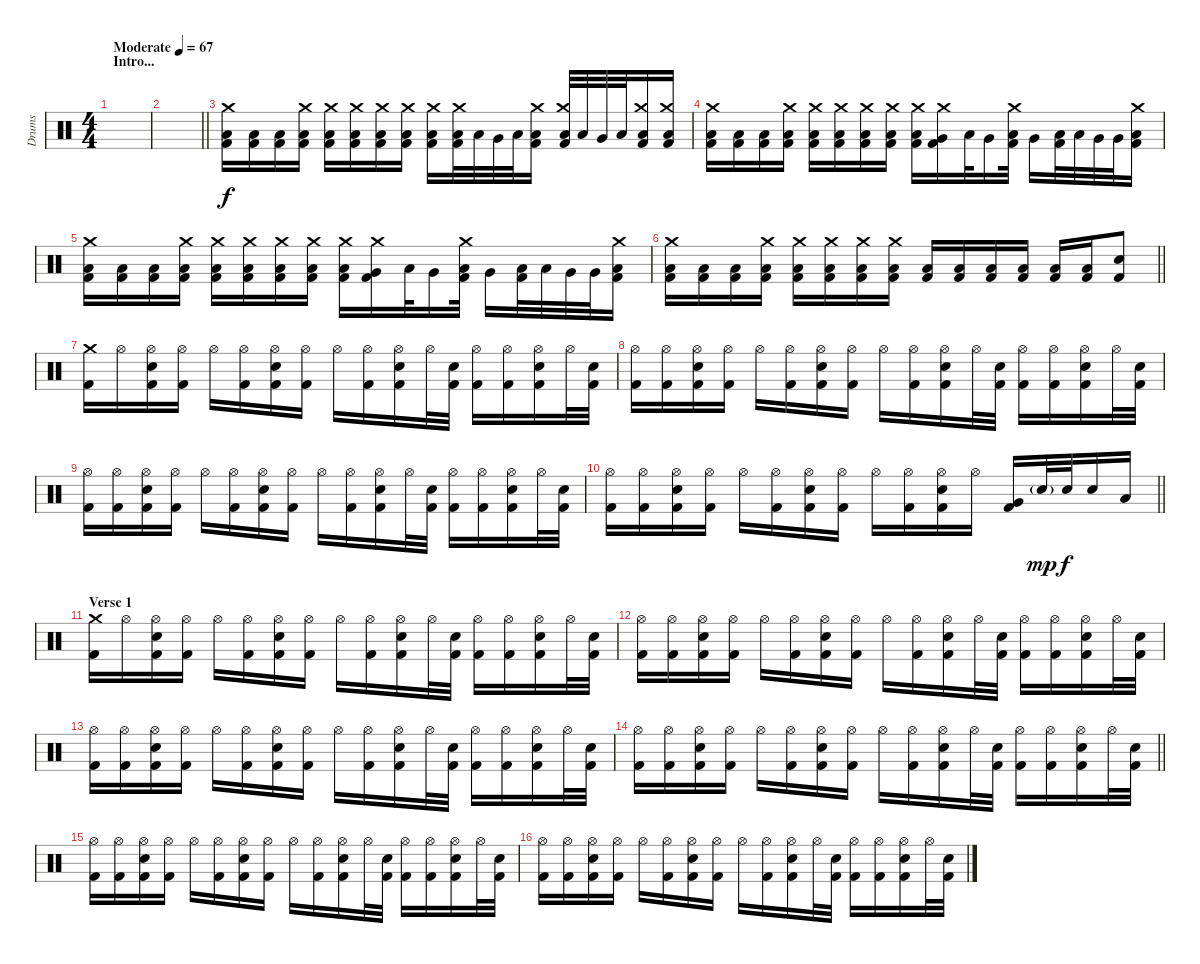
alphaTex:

\track ("Drums" "Drums") {instrument percussion}
\staff {score}
\articulation defaults
\ts (4 4)
\section ("" "Intro...")
\tempo (67 "Moderate")
\clef neutral
\ks c
|
\barLineRight lightlight
|
("Kick (hit) 2" "Low Floor Tom (hit)" "Crash medium (hit)").16 ("Kick (hit) 2" "Low Floor Tom (hit)").16 ("Kick (hit) 2" "Low Floor Tom (hit)").16 ("Kick (hit) 2" "Low Floor Tom (hit)" "Crash medium (hit)").16 ("Kick (hit) 2" "Low Floor Tom (hit)" "Crash medium (hit)").16{volume 16} ("Kick (hit) 2" "Low Floor Tom (hit)" "Crash medium (hit)").16 ("Kick (hit) 2" "Low Floor Tom (hit)" "Crash medium (hit)").16 ("Kick (hit) 2" "Low Floor Tom (hit)" "Crash medium (hit)").16 ("Kick (hit) 2" "Low Floor Tom (hit)" "Crash medium (hit)").16 ("Kick (hit) 2" "Low Tom (hit)" "Crash medium (hit)").32 "Low Tom (hit)".32 "Very Low Tom (hit)".32 "Low Tom (hit)".32 ("Kick (hit) 2" "Low Tom (hit)" "Crash medium (hit)").16 ("Kick (hit) 2" "Low Tom (hit)" "Crash medium (hit)").32 "Low Tom (hit)".32 "Very Low Tom (hit)".32 "Low Tom (hit)".32 ("Kick (hit) 2" "Low Tom (hit)" "Crash medium (hit)").16 ("Kick (hit) 2" "Low Tom (hit)" "Crash medium (hit)").16 |
("Kick (hit) 2" "Low Floor Tom (hit)" "Crash medium (hit)").16 ("Kick (hit) 2" "Low Floor Tom (hit)").16 ("Kick (hit) 2" "Low Floor Tom (hit)").16 ("Kick (hit) 2" "Low Floor Tom (hit)" "Crash medium (hit)").16 ("Kick (hit) 2" "Low Floor Tom (hit)" "Crash medium (hit)").16{volume 16} ("Kick (hit) 2" "Low Floor Tom (hit)" "Crash medium (hit)").16 ("Kick (hit) 2" "Low Floor Tom (hit)" "Crash medium (hit)").16 ("Kick (hit) 2" "Low Floor Tom (hit)" "Crash medium (hit)").16 ("Kick (hit) 2" "Low Floor Tom (hit)" "Crash medium (hit)").16 ("Kick (hit) 2" "Very Low Tom (hit)" "Crash medium (hit)").16 "Low Tom (hit)".32 "Very Low Tom (hit)".16 ("Kick (hit) 2" "Low Tom (hit)" "Crash medium (hit)").32 "Very Low Tom (hit)".16 ("Kick (hit) 2" "Low Tom (hit)").32 "Low Tom (hit)".32 "Very Low Tom (hit)".32 "Very Low Tom (hit)".32 ("Kick (hit) 2" "Low Floor Tom (hit)" "Crash medium (hit)").16 |
("Kick (hit) 2" "Low Floor Tom (hit)" "Crash medium (hit)").16 ("Kick (hit) 2" "Low Floor Tom (hit)").16 ("Kick (hit) 2" "Low Floor Tom (hit)").16 ("Kick (hit) 2" "Low Floor Tom (hit)" "Crash medium (hit)").16 ("Kick (hit) 2" "Low Floor Tom (hit)" "Crash medium (hit)").16{volume 16} ("Kick (hit) 2" "Low Floor Tom (hit)" "Crash medium (hit)").16 ("Kick (hit) 2" "Low Floor Tom (hit)" "Crash medium (hit)").16 ("Kick (hit) 2" "Low Floor Tom (hit)" "Crash medium (hit)").16 ("Kick (hit) 2" "Low Floor Tom (hit)" "Crash medium (hit)").16 ("Kick (hit) 2" "Very Low Tom (hit)" "Crash medium (hit)").16 "Low Tom (hit)".32 "Very Low Tom (hit)".16 ("Kick (hit) 2" "Low Tom (hit)" "Crash medium (hit)").32 "Very Low Tom (hit)".16 ("Kick (hit) 2" "Low Tom (hit)").32 "Low Tom (hit)".32 "Very Low Tom (hit)".32 "Very Low Tom (hit)".32 ("Kick (hit) 2" "Low Floor Tom (hit)" "Crash medium (hit)").16 |
\barLineRight lightlight
("Kick (hit) 2" "Low Floor Tom (hit)" "Crash medium (hit)").16 ("Kick (hit) 2" "Low Floor Tom (hit)").16 ("Kick (hit) 2" "Low Floor Tom (hit)").16 ("Kick (hit) 2" "Low Floor Tom (hit)" "Crash medium (hit)").16 ("Kick (hit) 2" "Low Floor Tom (hit)" "Crash medium (hit)").16{volume 16} ("Kick (hit) 2" "Low Floor Tom (hit)" "Crash medium (hit)").16 ("Kick (hit) 2" "Low Floor Tom (hit)" "Crash medium (hit)").16 ("Kick (hit) 2" "Low Floor Tom (hit)" "Crash medium (hit)").16 ("Kick (hit) 2" "Low Floor Tom (hit)").16 ("Kick (hit) 2" "Low Floor Tom (hit)").16 ("Kick (hit) 2" "Low Floor Tom (hit)").16 ("Kick (hit) 2" "Low Floor Tom (hit)").16 ("Kick (hit) 2" "Low Floor Tom (hit)").16 ("Kick (hit) 2" "Low Floor Tom (hit)").16 ("Kick (hit) 2" "Snare (hit) 2").8 |
("Kick (hit) 2" "Crash medium (hit)").16 "Hi-Hat (open)".16 ("Kick (hit) 2" "Snare (hit) 2" "Hi-Hat (open)").16 ("Kick (hit) 2" "Hi-Hat (open)").16 "Hi-Hat (open)".16 ("Kick (hit) 2" "Hi-Hat (open)").16 ("Kick (hit) 2" "Snare (hit) 2" "Hi-Hat (open)").16 ("Kick (hit) 2" "Hi-Hat (open)").16 "Hi-Hat (open)".16 ("Kick (hit) 2" "Hi-Hat (open)").16 ("Kick (hit) 2" "Snare (hit) 2" "Hi-Hat (open)").16 "Hi-Hat (open)".32 ("Kick (hit) 2" "Snare (hit) 2").32 ("Kick (hit) 2" "Hi-Hat (open)").16 ("Kick (hit) 2" "Hi-Hat (open)").16 ("Kick (hit) 2" "Snare (hit) 2" "Hi-Hat (open)").16 "Hi-Hat (open)".32 ("Kick (hit) 2" "Snare (hit) 2").32 |
("Kick (hit) 2" "Hi-Hat (open)").16 ("Kick (hit) 2" "Hi-Hat (open)").16 ("Kick (hit) 2" "Snare (hit) 2" "Hi-Hat (open)").16 ("Kick (hit) 2" "Hi-Hat (open)").16 "Hi-Hat (open)".16 ("Kick (hit) 2" "Hi-Hat (open)").16 ("Kick (hit) 2" "Snare (hit) 2" "Hi-Hat (open)").16 ("Kick (hit) 2" "Hi-Hat (open)").16 "Hi-Hat (open)".16 ("Kick (hit) 2" "Hi-Hat (open)").16 ("Kick (hit) 2" "Snare (hit) 2" "Hi-Hat (open)").16 "Hi-Hat (open)".32 ("Kick (hit) 2" "Snare (hit) 2").32 ("Kick (hit) 2" "Hi-Hat (open)").16 ("Kick (hit) 2" "Hi-Hat (open)").16 ("Kick (hit) 2" "Snare (hit) 2" "Hi-Hat (open)").16 "Hi-Hat (open)".32 ("Kick (hit) 2" "Snare (hit) 2").32 |
("Kick (hit) 2" "Hi-Hat (open)").16 ("Kick (hit) 2" "Hi-Hat (open)").16 ("Kick (hit) 2" "Snare (hit) 2" "Hi-Hat (open)").16 ("Kick (hit) 2" "Hi-Hat (open)").16 "Hi-Hat (open)".16 ("Kick (hit) 2" "Hi-Hat (open)").16 ("Kick (hit) 2" "Snare (hit) 2" "Hi-Hat (open)").16 ("Kick (hit) 2" "Hi-Hat (open)").16 "Hi-Hat (open)".16 ("Kick (hit) 2" "Hi-Hat (open)").16 ("Kick (hit) 2" "Snare (hit) 2" "Hi-Hat (open)").16 "Hi-Hat (open)".32 ("Kick (hit) 2" "Snare (hit) 2").32 ("Kick (hit) 2" "Hi-Hat (open)").16 ("Kick (hit) 2" "Hi-Hat (open)").16 ("Kick (hit) 2" "Snare (hit) 2" "Hi-Hat (open)").16 "Hi-Hat (open)".32 ("Kick (hit) 2" "Snare (hit) 2").32 |
\barLineRight lightlight
("Kick (hit) 2" "Hi-Hat (open)").16 ("Kick (hit) 2" "Hi-Hat (open)").16 ("Kick (hit) 2" "Snare (hit) 2" "Hi-Hat (open)").16 ("Kick (hit) 2" "Hi-Hat (open)").16 "Hi-Hat (open)".16 ("Kick (hit) 2" "Hi-Hat (open)").16 ("Kick (hit) 2" "Snare (hit) 2" "Hi-Hat (open)").16 ("Kick (hit) 2" "Hi-Hat (open)").16 "Hi-Hat (open)".16 ("Kick (hit) 2" "Hi-Hat (open)").16 ("Kick (hit) 2" "Snare (hit) 2" "Hi-Hat (open)").16 "Hi-Hat (open)".16 ("Kick (hit) 2" "Very Low Tom (hit)").16 "Snare (hit) 2"{g}.32{dy mp} "Snare (hit) 2".32{dy f} "Snare (hit) 2".16 "Low Floor Tom (hit)".16 |
\section ("" "Verse 1")
("Kick (hit) 2" "Crash medium (hit)").16 "Hi-Hat (open)".16 ("Kick (hit) 2" "Snare (hit) 2" "Hi-Hat (open)").16 ("Kick (hit) 2" "Hi-Hat (open)").16 "Hi-Hat (open)".16 ("Kick (hit) 2" "Hi-Hat (open)").16 ("Kick (hit) 2" "Snare (hit) 2" "Hi-Hat (open)").16 ("Kick (hit) 2" "Hi-Hat (open)").16 "Hi-Hat (open)".16 ("Kick (hit) 2" "Hi-Hat (open)").16 ("Kick (hit) 2" "Snare (hit) 2" "Hi-Hat (open)").16 "Hi-Hat (open)".32 ("Kick (hit) 2" "Snare (hit) 2").32 ("Kick (hit) 2" "Hi-Hat (open)").16 ("Kick (hit) 2" "Hi-Hat (open)").16 ("Kick (hit) 2" "Snare (hit) 2" "Hi-Hat (open)").16 "Hi-Hat (open)".32 ("Kick (hit) 2" "Snare (hit) 2").32 |
("Kick (hit) 2" "Hi-Hat (open)").16 ("Kick (hit) 2" "Hi-Hat (open)").16 ("Kick (hit) 2" "Snare (hit) 2" "Hi-Hat (open)").16 ("Kick (hit) 2" "Hi-Hat (open)").16 "Hi-Hat (open)".16 ("Kick (hit) 2" "Hi-Hat (open)").16 ("Kick (hit) 2" "Snare (hit) 2" "Hi-Hat (open)").16 ("Kick (hit) 2" "Hi-Hat (open)").16 "Hi-Hat (open)".16 ("Kick (hit) 2" "Hi-Hat (open)").16 ("Kick (hit) 2" "Snare (hit) 2" "Hi-Hat (open)").16 "Hi-Hat (open)".32 ("Kick (hit) 2" "Snare (hit) 2").32 ("Kick (hit) 2" "Hi-Hat (open)").16 ("Kick (hit) 2" "Hi-Hat (open)").16 ("Kick (hit) 2" "Snare (hit) 2" "Hi-Hat (open)").16 "Hi-Hat (open)".32 ("Kick (hit) 2" "Snare (hit) 2").32 |
("Kick (hit) 2" "Hi-Hat (open)").16 ("Kick (hit) 2" "Hi-Hat (open)").16 ("Kick (hit) 2" "Snare (hit) 2" "Hi-Hat (open)").16 ("Kick (hit) 2" "Hi-Hat (open)").16 "Hi-Hat (open)".16 ("Kick (hit) 2" "Hi-Hat (open)").16 ("Kick (hit) 2" "Snare (hit) 2" "Hi-Hat (open)").16 ("Kick (hit) 2" "Hi-Hat (open)").16 "Hi-Hat (open)".16 ("Kick (hit) 2" "Hi-Hat (open)").16 ("Kick (hit) 2" "Snare (hit) 2" "Hi-Hat (open)").16 "Hi-Hat (open)".32 ("Kick (hit) 2" "Snare (hit) 2").32 ("Kick (hit) 2" "Hi-Hat (open)").16 ("Kick (hit) 2" "Hi-Hat (open)").16 ("Kick (hit) 2" "Snare (hit) 2" "Hi-Hat (open)").16 "Hi-Hat (open)".32 ("Kick (hit) 2" "Snare (hit) 2").32 |
\barLineRight lightlight
("Kick (hit) 2" "Hi-Hat (open)").16 ("Kick (hit) 2" "Hi-Hat (open)").16 ("Kick (hit) 2" "Snare (hit) 2" "Hi-Hat (open)").16 ("Kick (hit) 2" "Hi-Hat (open)").16 "Hi-Hat (open)".16 ("Kick (hit) 2" "Hi-Hat (open)").16 ("Kick (hit) 2" "Snare (hit) 2" "Hi-Hat (open)").16 ("Kick (hit) 2" "Hi-Hat (open)").16 "Hi-Hat (open)".16 ("Kick (hit) 2" "Hi-Hat (open)").16 ("Kick (hit) 2" "Snare (hit) 2" "Hi-Hat (open)").16 "Hi-Hat (open)".32 ("Kick (hit) 2" "Snare (hit) 2").32 ("Kick (hit) 2" "Hi-Hat (open)").16 ("Kick (hit) 2" "Hi-Hat (open)").16 ("Kick (hit) 2" "Snare (hit) 2" "Hi-Hat (open)").16 "Hi-Hat (open)".32 ("Kick (hit) 2" "Snare (hit) 2").32 |
("Kick (hit) 2" "Hi-Hat (open)").16 ("Kick (hit) 2" "Hi-Hat (open)").16 ("Kick (hit) 2" "Snare (hit) 2" "Hi-Hat (open)").16 ("Kick (hit) 2" "Hi-Hat (open)").16 "Hi-Hat (open)".16 ("Kick (hit) 2" "Hi-Hat (open)").16 ("Kick (hit) 2" "Snare (hit) 2" "Hi-Hat (open)").16 ("Kick (hit) 2" "Hi-Hat (open)").16 "Hi-Hat (open)".16 ("Kick (hit) 2" "Hi-Hat (open)").16 ("Kick (hit) 2" "Snare (hit) 2" "Hi-Hat (open)").16 "Hi-Hat (open)".32 ("Kick (hit) 2" "Snare (hit) 2").32 ("Kick (hit) 2" "Hi-Hat (open)").16 ("Kick (hit) 2" "Hi-Hat (open)").16 ("Kick (hit) 2" "Snare (hit) 2" "Hi-Hat (open)").16 "Hi-Hat (open)".32 ("Kick (hit) 2" "Snare (hit) 2").32 |
("Kick (hit) 2" "Hi-Hat (open)").16 ("Kick (hit) 2" "Hi-Hat (open)").16 ("Kick (hit) 2" "Snare (hit) 2" "Hi-Hat (open)").16 ("Kick (hit) 2" "Hi-Hat (open)").16 "Hi-Hat (open)".16 ("Kick (hit) 2" "Hi-Hat (open)").16 ("Kick (hit) 2" "Snare (hit) 2" "Hi-Hat (open)").16 ("Kick (hit) 2" "Hi-Hat (open)").16 "Hi-Hat (open)".16 ("Kick (hit) 2" "Hi-Hat (open)").16 ("Kick (hit) 2" "Snare (hit) 2" "Hi-Hat (open)").16 "Hi-Hat (open)".32 ("Kick (hit) 2" "Snare (hit) 2").32 ("Kick (hit) 2" "Hi-Hat (open)").16 ("Kick (hit) 2" "Hi-Hat (open)").16 ("Kick (hit) 2" "Snare (hit) 2" "Hi-Hat (open)").16 "Hi-Hat (open)".32 ("Kick (hit) 2" "Snare (hit) 2").32
